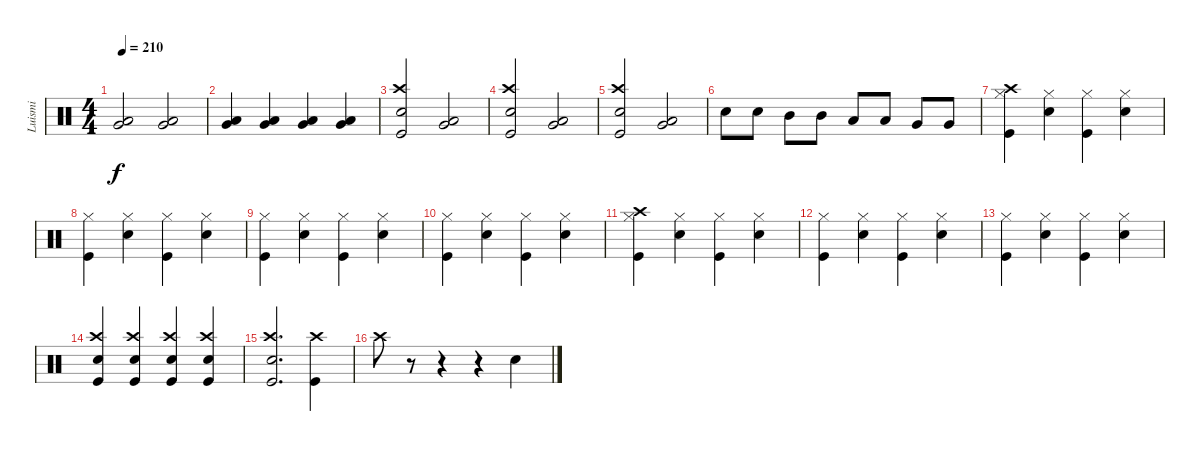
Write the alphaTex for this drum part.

\track ("Luismi" "Luismi") {instrument percussion}
\staff {score}
\articulation defaults
\ts (4 4)
\tempo 210
\clef neutral
\ks c
("Very Low Tom (hit)" "Low Floor Tom (hit)").2{dy f} ("Very Low Tom (hit)" "Low Floor Tom (hit)").2 |
("Very Low Tom (hit)" "Low Floor Tom (hit)").4 ("Very Low Tom (hit)" "Low Floor Tom (hit)").4 ("Very Low Tom (hit)" "Low Floor Tom (hit)").4 ("Very Low Tom (hit)" "Low Floor Tom (hit)").4 |
("Snare (hit) 2" "Crash high (hit)" "Kick (hit)").2 ("Very Low Tom (hit)" "Low Floor Tom (hit)").2 |
("Snare (hit) 2" "Kick (hit)" "Crash high (hit)").2 ("Very Low Tom (hit)" "Low Floor Tom (hit)").2 |
("Snare (hit) 2" "Kick (hit)" "Crash high (hit)").2 ("Very Low Tom (hit)" "Low Floor Tom (hit)").2 |
"Snare (hit) 2".8 "Snare (hit) 2".8 "Mid Tom (hit)".8 "Mid Tom (hit)".8 "Low Tom (hit)".8 "Low Tom (hit)".8 "Very Low Tom (hit)".8 "Very Low Tom (hit)".8 |
("Hi-Hat (closed)" "Crash high (hit)" "Kick (hit)").4 ("Hi-Hat (closed)" "Snare (hit) 2").4 ("Kick (hit)" "Hi-Hat (closed)").4 ("Snare (hit) 2" "Hi-Hat (closed)").4 |
("Kick (hit)" "Hi-Hat (closed)").4 ("Snare (hit) 2" "Hi-Hat (closed)").4 ("Kick (hit)" "Hi-Hat (closed)").4 ("Snare (hit) 2" "Hi-Hat (closed)").4 |
("Kick (hit)" "Hi-Hat (closed)").4 ("Snare (hit) 2" "Hi-Hat (closed)").4 ("Kick (hit)" "Hi-Hat (closed)").4 ("Snare (hit) 2" "Hi-Hat (closed)").4 |
("Kick (hit)" "Hi-Hat (closed)").4 ("Snare (hit) 2" "Hi-Hat (closed)").4 ("Kick (hit)" "Hi-Hat (closed)").4 ("Snare (hit) 2" "Hi-Hat (closed)").4 |
("Hi-Hat (closed)" "Crash high (hit)" "Kick (hit)").4 ("Hi-Hat (closed)" "Snare (hit) 2").4 ("Kick (hit)" "Hi-Hat (closed)").4 ("Snare (hit) 2" "Hi-Hat (closed)").4 |
("Kick (hit)" "Hi-Hat (closed)").4 ("Snare (hit) 2" "Hi-Hat (closed)").4 ("Kick (hit)" "Hi-Hat (closed)").4 ("Snare (hit) 2" "Hi-Hat (closed)").4 |
("Kick (hit)" "Hi-Hat (closed)").4 ("Snare (hit) 2" "Hi-Hat (closed)").4 ("Kick (hit)" "Hi-Hat (closed)").4 ("Snare (hit) 2" "Hi-Hat (closed)").4 |
("Snare (hit) 2" "Crash high (hit)" "Kick (hit)").4 ("Snare (hit) 2" "Kick (hit)" "Crash high (hit)").4 ("Snare (hit) 2" "Kick (hit)" "Crash high (hit)").4 ("Snare (hit) 2" "Kick (hit)" "Crash high (hit)").4 |
("Snare (hit) 2" "Kick (hit)" "Crash high (hit)").2{d} ("Kick (hit)" "Crash high (hit)").4 |
"Crash high (hit)".8 r.8 r.4 r.4 "Snare (hit) 2".4
